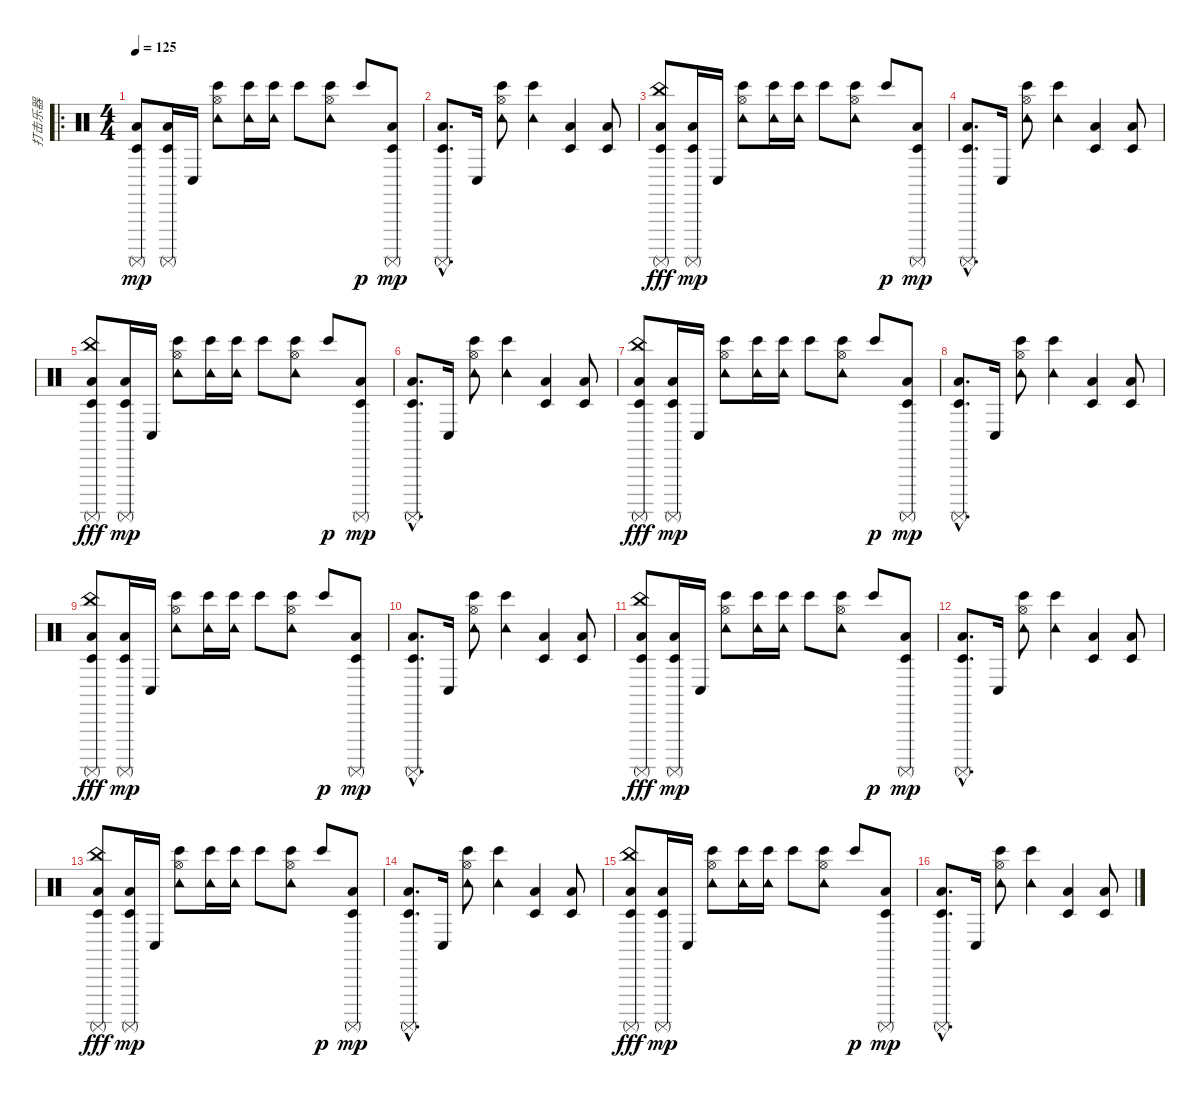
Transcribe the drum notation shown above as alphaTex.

\track ("打击乐器" "打击乐器") {instrument percussion}
\staff {score}
\articulation defaults
\ro
\ts (4 4)
\tempo 125
\clef neutral
\ks c
("Surdo (mute)" "Low Floor Tom (hit)" "Timbale low (hit)").8{dy mp} ("Surdo (mute)" "Low Floor Tom (hit)" "Timbale low (hit)").16 "Conga low (hit)".16 ("Tambourine (hit)" "Hi-Hat (open)" "Bongo High (hit)").8 ("Tambourine (hit)" "Bongo High (hit)").16 ("Tambourine (hit)" "Bongo High (hit)").16 "Bongo High (hit)".8 ("Tambourine (hit)" "Hi-Hat (open)" "Bongo High (hit)").8 "Bongo High (hit)".8{dy p} ("Surdo (mute)" "Low Floor Tom (hit)" "Timbale low (hit)").8{dy mp} |
("Surdo (mute)"{hac} "Low Floor Tom (hit)"{hac} "Timbale low (hit)"{hac}).8{d} "Conga low (hit)".16 ("Tambourine (hit)" "Hi-Hat (open)" "Bongo High (hit)").8 ("Tambourine (hit)" "Bongo High (hit)").4 ("Low Tom (hit)" "Timbale low (hit)").4 ("Low Tom (hit)" "Timbale low (hit)").8 |
("Surdo (mute)" "Low Floor Tom (hit)" "Timbale low (hit)" "China (hit)").8{dy fff} ("Surdo (mute)" "Low Floor Tom (hit)" "Timbale low (hit)").16{dy mp} "Conga low (hit)".16 ("Tambourine (hit)" "Hi-Hat (open)" "Bongo High (hit)").8 ("Tambourine (hit)" "Bongo High (hit)").16 ("Tambourine (hit)" "Bongo High (hit)").16 "Bongo High (hit)".8 ("Tambourine (hit)" "Hi-Hat (open)" "Bongo High (hit)").8 "Bongo High (hit)".8{dy p} ("Surdo (mute)" "Low Floor Tom (hit)" "Timbale low (hit)").8{dy mp} |
("Surdo (mute)"{hac} "Low Floor Tom (hit)"{hac} "Timbale low (hit)"{hac}).8{d} "Conga low (hit)".16 ("Tambourine (hit)" "Hi-Hat (open)" "Bongo High (hit)").8 ("Tambourine (hit)" "Bongo High (hit)").4 ("Low Tom (hit)" "Timbale low (hit)").4 ("Low Tom (hit)" "Timbale low (hit)").8 |
("Surdo (mute)" "Low Floor Tom (hit)" "Timbale low (hit)" "China (hit)").8{dy fff} ("Surdo (mute)" "Low Floor Tom (hit)" "Timbale low (hit)").16{dy mp} "Conga low (hit)".16 ("Tambourine (hit)" "Hi-Hat (open)" "Bongo High (hit)").8 ("Tambourine (hit)" "Bongo High (hit)").16 ("Tambourine (hit)" "Bongo High (hit)").16 "Bongo High (hit)".8 ("Tambourine (hit)" "Hi-Hat (open)" "Bongo High (hit)").8 "Bongo High (hit)".8{dy p} ("Surdo (mute)" "Low Floor Tom (hit)" "Timbale low (hit)").8{dy mp} |
("Surdo (mute)"{hac} "Low Floor Tom (hit)"{hac} "Timbale low (hit)"{hac}).8{d} "Conga low (hit)".16 ("Tambourine (hit)" "Hi-Hat (open)" "Bongo High (hit)").8 ("Tambourine (hit)" "Bongo High (hit)").4 ("Low Tom (hit)" "Timbale low (hit)").4 ("Low Tom (hit)" "Timbale low (hit)").8 |
("Surdo (mute)" "Low Floor Tom (hit)" "Timbale low (hit)" "China (hit)").8{dy fff} ("Surdo (mute)" "Low Floor Tom (hit)" "Timbale low (hit)").16{dy mp} "Conga low (hit)".16 ("Tambourine (hit)" "Hi-Hat (open)" "Bongo High (hit)").8 ("Tambourine (hit)" "Bongo High (hit)").16 ("Tambourine (hit)" "Bongo High (hit)").16 "Bongo High (hit)".8 ("Tambourine (hit)" "Hi-Hat (open)" "Bongo High (hit)").8 "Bongo High (hit)".8{dy p} ("Surdo (mute)" "Low Floor Tom (hit)" "Timbale low (hit)").8{dy mp} |
("Surdo (mute)"{hac} "Low Floor Tom (hit)"{hac} "Timbale low (hit)"{hac}).8{d} "Conga low (hit)".16 ("Tambourine (hit)" "Hi-Hat (open)" "Bongo High (hit)").8 ("Tambourine (hit)" "Bongo High (hit)").4 ("Low Tom (hit)" "Timbale low (hit)").4 ("Low Tom (hit)" "Timbale low (hit)").8 |
("Surdo (mute)" "Low Floor Tom (hit)" "Timbale low (hit)" "China (hit)").8{dy fff} ("Surdo (mute)" "Low Floor Tom (hit)" "Timbale low (hit)").16{dy mp} "Conga low (hit)".16 ("Tambourine (hit)" "Hi-Hat (open)" "Bongo High (hit)").8 ("Tambourine (hit)" "Bongo High (hit)").16 ("Tambourine (hit)" "Bongo High (hit)").16 "Bongo High (hit)".8 ("Tambourine (hit)" "Hi-Hat (open)" "Bongo High (hit)").8 "Bongo High (hit)".8{dy p} ("Surdo (mute)" "Low Floor Tom (hit)" "Timbale low (hit)").8{dy mp} |
("Surdo (mute)"{hac} "Low Floor Tom (hit)"{hac} "Timbale low (hit)"{hac}).8{d} "Conga low (hit)".16 ("Tambourine (hit)" "Hi-Hat (open)" "Bongo High (hit)").8 ("Tambourine (hit)" "Bongo High (hit)").4 ("Low Tom (hit)" "Timbale low (hit)").4 ("Low Tom (hit)" "Timbale low (hit)").8 |
("Surdo (mute)" "Low Floor Tom (hit)" "Timbale low (hit)" "China (hit)").8{dy fff} ("Surdo (mute)" "Low Floor Tom (hit)" "Timbale low (hit)").16{dy mp} "Conga low (hit)".16 ("Tambourine (hit)" "Hi-Hat (open)" "Bongo High (hit)").8 ("Tambourine (hit)" "Bongo High (hit)").16 ("Tambourine (hit)" "Bongo High (hit)").16 "Bongo High (hit)".8 ("Tambourine (hit)" "Hi-Hat (open)" "Bongo High (hit)").8 "Bongo High (hit)".8{dy p} ("Surdo (mute)" "Low Floor Tom (hit)" "Timbale low (hit)").8{dy mp} |
("Surdo (mute)"{hac} "Low Floor Tom (hit)"{hac} "Timbale low (hit)"{hac}).8{d} "Conga low (hit)".16 ("Tambourine (hit)" "Hi-Hat (open)" "Bongo High (hit)").8 ("Tambourine (hit)" "Bongo High (hit)").4 ("Low Tom (hit)" "Timbale low (hit)").4 ("Low Tom (hit)" "Timbale low (hit)").8 |
("Surdo (mute)" "Low Floor Tom (hit)" "Timbale low (hit)" "China (hit)").8{dy fff} ("Surdo (mute)" "Low Floor Tom (hit)" "Timbale low (hit)").16{dy mp} "Conga low (hit)".16 ("Tambourine (hit)" "Hi-Hat (open)" "Bongo High (hit)").8 ("Tambourine (hit)" "Bongo High (hit)").16 ("Tambourine (hit)" "Bongo High (hit)").16 "Bongo High (hit)".8 ("Tambourine (hit)" "Hi-Hat (open)" "Bongo High (hit)").8 "Bongo High (hit)".8{dy p} ("Surdo (mute)" "Low Floor Tom (hit)" "Timbale low (hit)").8{dy mp} |
("Surdo (mute)"{hac} "Low Floor Tom (hit)"{hac} "Timbale low (hit)"{hac}).8{d} "Conga low (hit)".16 ("Tambourine (hit)" "Hi-Hat (open)" "Bongo High (hit)").8 ("Tambourine (hit)" "Bongo High (hit)").4 ("Low Tom (hit)" "Timbale low (hit)").4 ("Low Tom (hit)" "Timbale low (hit)").8 |
("Surdo (mute)" "Low Floor Tom (hit)" "Timbale low (hit)" "China (hit)").8{dy fff} ("Surdo (mute)" "Low Floor Tom (hit)" "Timbale low (hit)").16{dy mp} "Conga low (hit)".16 ("Tambourine (hit)" "Hi-Hat (open)" "Bongo High (hit)").8 ("Tambourine (hit)" "Bongo High (hit)").16 ("Tambourine (hit)" "Bongo High (hit)").16 "Bongo High (hit)".8 ("Tambourine (hit)" "Hi-Hat (open)" "Bongo High (hit)").8 "Bongo High (hit)".8{dy p} ("Surdo (mute)" "Low Floor Tom (hit)" "Timbale low (hit)").8{dy mp} |
("Surdo (mute)"{hac} "Low Floor Tom (hit)"{hac} "Timbale low (hit)"{hac}).8{d} "Conga low (hit)".16 ("Tambourine (hit)" "Hi-Hat (open)" "Bongo High (hit)").8 ("Tambourine (hit)" "Bongo High (hit)").4 ("Low Tom (hit)" "Timbale low (hit)").4 ("Low Tom (hit)" "Timbale low (hit)").8
